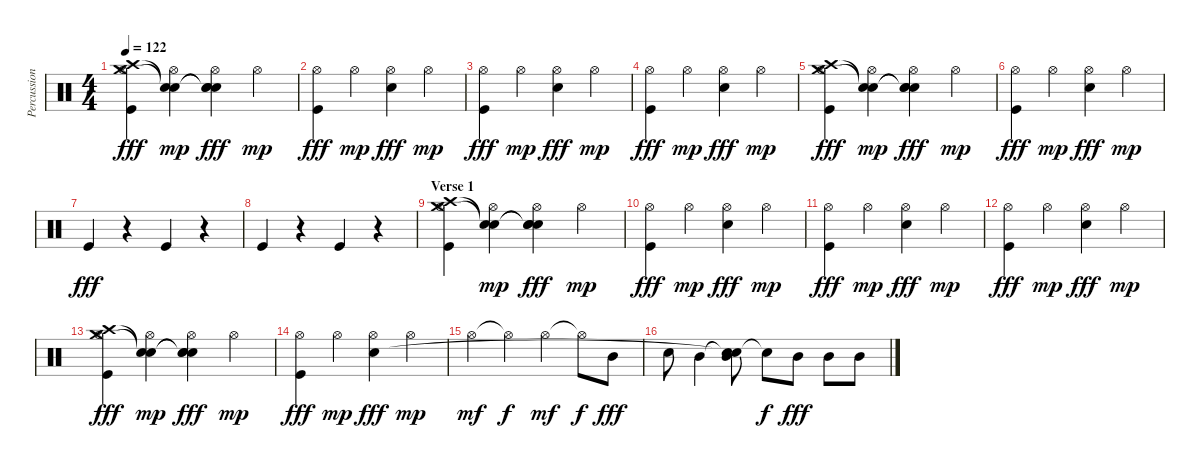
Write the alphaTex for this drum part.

\track ("Percussion" "Percussion") {instrument percussion}
\staff {score}
\articulation defaults
\ts (4 4)
\tempo 122
\clef neutral
\ks c
("Hi-Hat (open)" "Crash high (hit)" "Crash medium (hit)" "Kick (hit)").4{dy fff} ("Hi-Hat (open)" "Snare (hit)"{t} "Snare (hit)"{t}).4{dy mp} ("Hi-Hat (open)" "Snare (hit)"{t} "Snare (hit)"{t} "Snare (hit) 2").4{dy fff} "Hi-Hat (open)".4{dy mp} |
("Hi-Hat (open)" "Kick (hit)").4{dy fff} "Hi-Hat (open)".4{dy mp} ("Hi-Hat (open)" "Snare (hit) 2").4{dy fff} "Hi-Hat (open)".4{dy mp} |
("Hi-Hat (open)" "Kick (hit)").4{dy fff} "Hi-Hat (open)".4{dy mp} ("Hi-Hat (open)" "Snare (hit) 2").4{dy fff} "Hi-Hat (open)".4{dy mp} |
("Hi-Hat (open)" "Kick (hit)").4{dy fff} "Hi-Hat (open)".4{dy mp} ("Hi-Hat (open)" "Snare (hit) 2").4{dy fff} "Hi-Hat (open)".4{dy mp} |
("Hi-Hat (open)" "Crash high (hit)" "Crash medium (hit)" "Kick (hit)").4{dy fff} ("Hi-Hat (open)" "Snare (hit)"{t} "Snare (hit)"{t}).4{dy mp} ("Hi-Hat (open)" "Snare (hit)"{t} "Snare (hit)"{t} "Snare (hit) 2").4{dy fff} "Hi-Hat (open)".4{dy mp} |
("Hi-Hat (open)" "Kick (hit)").4{dy fff} "Hi-Hat (open)".4{dy mp} ("Hi-Hat (open)" "Snare (hit) 2").4{dy fff} "Hi-Hat (open)".4{dy mp} |
"Kick (hit)".4{dy fff} r.4 "Kick (hit)".4 r.4 |
"Kick (hit)".4 r.4 "Kick (hit)".4 r.4 |
\section ("" "Verse 1")
("Hi-Hat (open)" "Crash high (hit)" "Crash medium (hit)" "Kick (hit)").4 ("Hi-Hat (open)" "Snare (hit)"{t} "Snare (hit)"{t}).4{dy mp} ("Hi-Hat (open)" "Snare (hit)"{t} "Snare (hit)"{t} "Snare (hit) 2").4{dy fff} "Hi-Hat (open)".4{dy mp} |
("Hi-Hat (open)" "Kick (hit)").4{dy fff} "Hi-Hat (open)".4{dy mp} ("Hi-Hat (open)" "Snare (hit) 2").4{dy fff} "Hi-Hat (open)".4{dy mp} |
("Hi-Hat (open)" "Kick (hit)").4{dy fff} "Hi-Hat (open)".4{dy mp} ("Hi-Hat (open)" "Snare (hit) 2").4{dy fff} "Hi-Hat (open)".4{dy mp} |
("Hi-Hat (open)" "Kick (hit)").4{dy fff} "Hi-Hat (open)".4{dy mp} ("Hi-Hat (open)" "Snare (hit) 2").4{dy fff} "Hi-Hat (open)".4{dy mp} |
("Hi-Hat (open)" "Crash high (hit)" "Crash medium (hit)" "Kick (hit)").4{dy fff} ("Hi-Hat (open)" "Snare (hit)"{t} "Snare (hit)"{t}).4{dy mp} ("Hi-Hat (open)" "Snare (hit)"{t} "Snare (hit)"{t} "Snare (hit) 2").4{dy fff} "Hi-Hat (open)".4{dy mp} |
("Hi-Hat (open)" "Kick (hit)").4{dy fff} "Hi-Hat (open)".4{dy mp} ("Hi-Hat (open)" "Snare (hit) 2").4{dy fff} "Hi-Hat (open)".4{dy mp} |
"Hi-Hat (open)".4{dy mf} "Hi-Hat (open)"{t}.4{dy f} "Hi-Hat (open)".4{dy mf} "Hi-Hat (open)"{t}.8{dy f} "Mid Tom (hit)".8{dy fff} |
"Snare (hit) 2".8 "Mid Tom (hit)".4 ("Snare (hit)"{t} "Snare (hit)"{t} "Mid Tom (hit)").8 "Snare (hit)"{t}.8{dy f} "Mid Tom (hit)".8{dy fff} "Mid Tom (hit)".8 "Mid Tom (hit)".8
